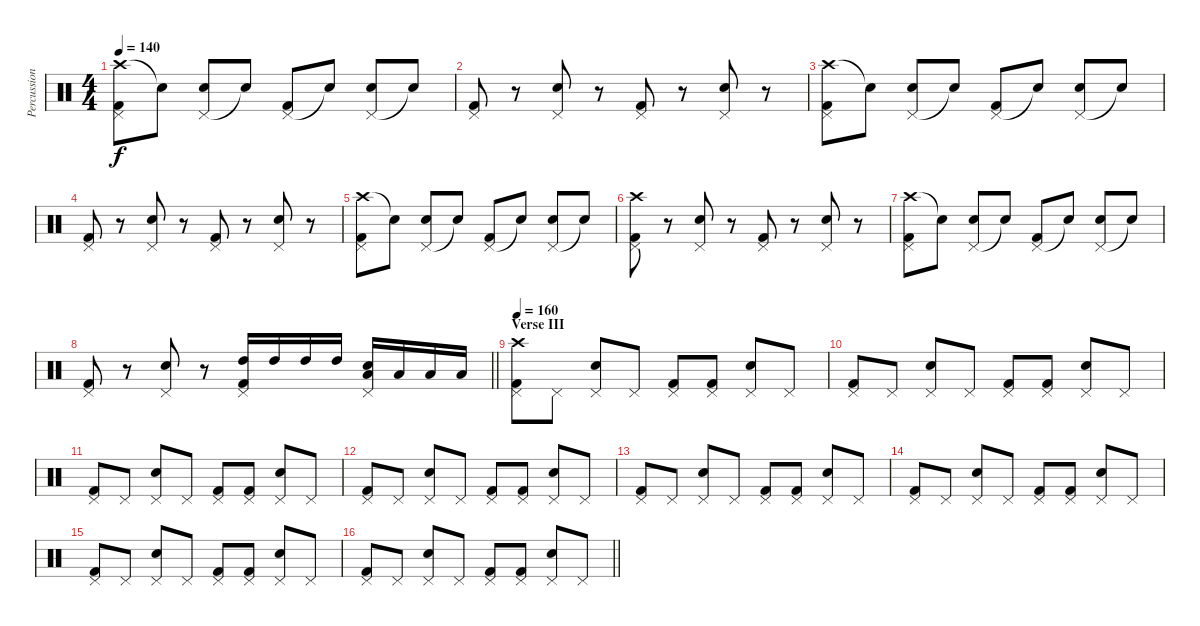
\track ("Percussion" "Percussion") {instrument percussion}
\staff {score}
\articulation defaults
\ts (4 4)
\tempo 140
\clef neutral
\ks c
("Crash high (hit)" "Pedal Hi-Hat (hit)" "Kick (hit) 2").8{dy f} "Snare (hit)"{t}.8 ("Pedal Hi-Hat (hit)" "Electric Snare (hit)").8 "Snare (hit)"{t}.8 ("Pedal Hi-Hat (hit)" "Kick (hit) 2").8 "Snare (hit)"{t}.8 ("Pedal Hi-Hat (hit)" "Electric Snare (hit)").8 "Snare (hit)"{t}.8 |
("Pedal Hi-Hat (hit)" "Kick (hit) 2").8 r.8 ("Pedal Hi-Hat (hit)" "Electric Snare (hit)").8 r.8 ("Pedal Hi-Hat (hit)" "Kick (hit) 2").8 r.8 ("Pedal Hi-Hat (hit)" "Electric Snare (hit)").8 r.8 |
("Crash high (hit)" "Pedal Hi-Hat (hit)" "Kick (hit) 2").8 "Snare (hit)"{t}.8 ("Pedal Hi-Hat (hit)" "Electric Snare (hit)").8 "Snare (hit)"{t}.8 ("Pedal Hi-Hat (hit)" "Kick (hit) 2").8 "Snare (hit)"{t}.8 ("Pedal Hi-Hat (hit)" "Electric Snare (hit)").8 "Snare (hit)"{t}.8 |
("Pedal Hi-Hat (hit)" "Kick (hit) 2").8 r.8 ("Pedal Hi-Hat (hit)" "Electric Snare (hit)").8 r.8 ("Pedal Hi-Hat (hit)" "Kick (hit) 2").8 r.8 ("Pedal Hi-Hat (hit)" "Electric Snare (hit)").8 r.8 |
("Crash high (hit)" "Pedal Hi-Hat (hit)" "Kick (hit) 2").8 "Snare (hit)"{t}.8 ("Pedal Hi-Hat (hit)" "Electric Snare (hit)").8 "Snare (hit)"{t}.8 ("Pedal Hi-Hat (hit)" "Kick (hit) 2").8 "Snare (hit)"{t}.8 ("Pedal Hi-Hat (hit)" "Electric Snare (hit)").8 "Snare (hit)"{t}.8 |
("Crash high (hit)" "Pedal Hi-Hat (hit)" "Kick (hit) 2").8 r.8 ("Pedal Hi-Hat (hit)" "Electric Snare (hit)").8 r.8 ("Pedal Hi-Hat (hit)" "Kick (hit) 2").8 r.8 ("Pedal Hi-Hat (hit)" "Electric Snare (hit)").8 r.8 |
("Crash high (hit)" "Pedal Hi-Hat (hit)" "Kick (hit) 2").8 "Snare (hit)"{t}.8 ("Pedal Hi-Hat (hit)" "Electric Snare (hit)").8 "Snare (hit)"{t}.8 ("Pedal Hi-Hat (hit)" "Kick (hit) 2").8 "Snare (hit)"{t}.8 ("Pedal Hi-Hat (hit)" "Electric Snare (hit)").8 "Snare (hit)"{t}.8 |
\barLineRight lightlight
("Pedal Hi-Hat (hit)" "Kick (hit) 2").8 r.8 ("Pedal Hi-Hat (hit)" "Electric Snare (hit)").8 r.8 ("High Tom (hit)" "Pedal Hi-Hat (hit)" "Kick (hit) 2").16 "High Tom (hit)".16 "High Tom (hit)".16 "High Tom (hit)".16 ("Low Tom (hit)" "Pedal Hi-Hat (hit)" "Electric Snare (hit)").16 "Low Tom (hit)".16 "Low Tom (hit)".16 "Low Tom (hit)".16 |
\section ("" "Verse III")
\tempo 160
("Crash high (hit)" "Pedal Hi-Hat (hit)" "Kick (hit) 2").8 "Pedal Hi-Hat (hit)".8 ("Pedal Hi-Hat (hit)" "Electric Snare (hit)").8 "Pedal Hi-Hat (hit)".8 ("Pedal Hi-Hat (hit)" "Kick (hit) 2").8 ("Pedal Hi-Hat (hit)" "Kick (hit) 2").8 ("Pedal Hi-Hat (hit)" "Electric Snare (hit)").8 "Pedal Hi-Hat (hit)".8 |
("Pedal Hi-Hat (hit)" "Kick (hit) 2").8 "Pedal Hi-Hat (hit)".8 ("Pedal Hi-Hat (hit)" "Electric Snare (hit)").8 "Pedal Hi-Hat (hit)".8 ("Pedal Hi-Hat (hit)" "Kick (hit) 2").8 ("Pedal Hi-Hat (hit)" "Kick (hit) 2").8 ("Pedal Hi-Hat (hit)" "Electric Snare (hit)").8 "Pedal Hi-Hat (hit)".8 |
("Pedal Hi-Hat (hit)" "Kick (hit) 2").8 "Pedal Hi-Hat (hit)".8 ("Pedal Hi-Hat (hit)" "Electric Snare (hit)").8 "Pedal Hi-Hat (hit)".8 ("Pedal Hi-Hat (hit)" "Kick (hit) 2").8 ("Pedal Hi-Hat (hit)" "Kick (hit) 2").8 ("Pedal Hi-Hat (hit)" "Electric Snare (hit)").8 "Pedal Hi-Hat (hit)".8 |
("Pedal Hi-Hat (hit)" "Kick (hit) 2").8 "Pedal Hi-Hat (hit)".8 ("Pedal Hi-Hat (hit)" "Electric Snare (hit)").8 "Pedal Hi-Hat (hit)".8 ("Pedal Hi-Hat (hit)" "Kick (hit) 2").8 ("Pedal Hi-Hat (hit)" "Kick (hit) 2").8 ("Pedal Hi-Hat (hit)" "Electric Snare (hit)").8 "Pedal Hi-Hat (hit)".8 |
("Pedal Hi-Hat (hit)" "Kick (hit) 2").8 "Pedal Hi-Hat (hit)".8 ("Pedal Hi-Hat (hit)" "Electric Snare (hit)").8 "Pedal Hi-Hat (hit)".8 ("Pedal Hi-Hat (hit)" "Kick (hit) 2").8 ("Pedal Hi-Hat (hit)" "Kick (hit) 2").8 ("Pedal Hi-Hat (hit)" "Electric Snare (hit)").8 "Pedal Hi-Hat (hit)".8 |
("Pedal Hi-Hat (hit)" "Kick (hit) 2").8 "Pedal Hi-Hat (hit)".8 ("Pedal Hi-Hat (hit)" "Electric Snare (hit)").8 "Pedal Hi-Hat (hit)".8 ("Pedal Hi-Hat (hit)" "Kick (hit) 2").8 ("Pedal Hi-Hat (hit)" "Kick (hit) 2").8 ("Pedal Hi-Hat (hit)" "Electric Snare (hit)").8 "Pedal Hi-Hat (hit)".8 |
("Pedal Hi-Hat (hit)" "Kick (hit) 2").8 "Pedal Hi-Hat (hit)".8 ("Pedal Hi-Hat (hit)" "Electric Snare (hit)").8 "Pedal Hi-Hat (hit)".8 ("Pedal Hi-Hat (hit)" "Kick (hit) 2").8 ("Pedal Hi-Hat (hit)" "Kick (hit) 2").8 ("Pedal Hi-Hat (hit)" "Electric Snare (hit)").8 "Pedal Hi-Hat (hit)".8 |
\barLineRight lightlight
("Pedal Hi-Hat (hit)" "Kick (hit) 2").8 "Pedal Hi-Hat (hit)".8 ("Pedal Hi-Hat (hit)" "Electric Snare (hit)").8 "Pedal Hi-Hat (hit)".8 ("Pedal Hi-Hat (hit)" "Kick (hit) 2").8 ("Pedal Hi-Hat (hit)" "Kick (hit) 2").8 ("Pedal Hi-Hat (hit)" "Electric Snare (hit)").8 "Pedal Hi-Hat (hit)".8
